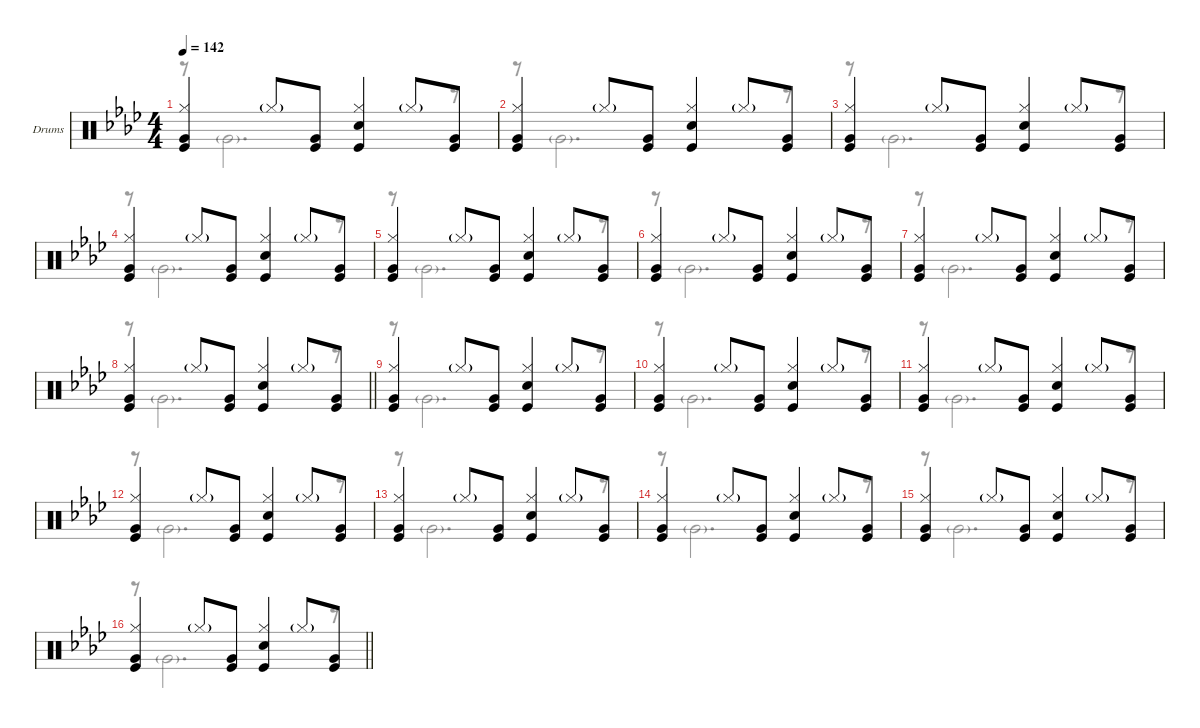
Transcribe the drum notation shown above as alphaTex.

\defaultSystemsLayout 4
\hideDynamics
\bracketExtendMode groupsimilarinstruments
\firstSystemTrackNameOrientation horizontal
\otherSystemsTrackNameOrientation horizontal
\track ("Drumkit" "Drums") {multiBarRest instrument percussion}
\staff {score}
\articulation defaults
\voice
\ts (4 4)
\tempo 142
\clef neutral
\ks ab
("Very Low Tom (hit)" "Kick (hit)" "Hi-Hat (closed)").4{dy fff} "Hi-Hat (closed)"{g}.8 ("Very Low Tom (hit)" "Kick (hit)").8 ("Snare (hit) 2" "Kick (hit)" "Hi-Hat (closed)").4 "Hi-Hat (closed)"{g}.8 ("Very Low Tom (hit)" "Kick (hit)").8 |
("Very Low Tom (hit)" "Kick (hit)" "Hi-Hat (closed)").4 "Hi-Hat (closed)"{g}.8 ("Very Low Tom (hit)" "Kick (hit)").8 ("Snare (hit) 2" "Kick (hit)" "Hi-Hat (closed)").4 "Hi-Hat (closed)"{g}.8 ("Very Low Tom (hit)" "Kick (hit)").8 |
("Very Low Tom (hit)" "Kick (hit)" "Hi-Hat (closed)").4 "Hi-Hat (closed)"{g}.8 ("Very Low Tom (hit)" "Kick (hit)").8 ("Snare (hit) 2" "Kick (hit)" "Hi-Hat (closed)").4 "Hi-Hat (closed)"{g}.8 ("Very Low Tom (hit)" "Kick (hit)").8 |
("Very Low Tom (hit)" "Kick (hit)" "Hi-Hat (closed)").4 "Hi-Hat (closed)"{g}.8 ("Very Low Tom (hit)" "Kick (hit)").8 ("Snare (hit) 2" "Kick (hit)" "Hi-Hat (closed)").4 "Hi-Hat (closed)"{g}.8 ("Very Low Tom (hit)" "Kick (hit)").8 |
("Very Low Tom (hit)" "Kick (hit)" "Hi-Hat (closed)").4 "Hi-Hat (closed)"{g}.8 ("Very Low Tom (hit)" "Kick (hit)").8 ("Snare (hit) 2" "Kick (hit)" "Hi-Hat (closed)").4 "Hi-Hat (closed)"{g}.8 ("Very Low Tom (hit)" "Kick (hit)").8 |
("Very Low Tom (hit)" "Kick (hit)" "Hi-Hat (closed)").4 "Hi-Hat (closed)"{g}.8 ("Very Low Tom (hit)" "Kick (hit)").8 ("Snare (hit) 2" "Kick (hit)" "Hi-Hat (closed)").4 "Hi-Hat (closed)"{g}.8 ("Very Low Tom (hit)" "Kick (hit)").8 |
("Very Low Tom (hit)" "Kick (hit)" "Hi-Hat (closed)").4 "Hi-Hat (closed)"{g}.8 ("Very Low Tom (hit)" "Kick (hit)").8 ("Snare (hit) 2" "Kick (hit)" "Hi-Hat (closed)").4 "Hi-Hat (closed)"{g}.8 ("Very Low Tom (hit)" "Kick (hit)").8 |
\barLineRight lightlight
("Very Low Tom (hit)" "Kick (hit)" "Hi-Hat (closed)").4 "Hi-Hat (closed)"{g}.8 ("Very Low Tom (hit)" "Kick (hit)").8 ("Snare (hit) 2" "Kick (hit)" "Hi-Hat (closed)").4 "Hi-Hat (closed)"{g}.8 ("Very Low Tom (hit)" "Kick (hit)").8 |
("Very Low Tom (hit)" "Kick (hit)" "Hi-Hat (closed)").4 "Hi-Hat (closed)"{g}.8 ("Very Low Tom (hit)" "Kick (hit)").8 ("Snare (hit) 2" "Kick (hit)" "Hi-Hat (closed)").4 "Hi-Hat (closed)"{g}.8 ("Very Low Tom (hit)" "Kick (hit)").8 |
("Very Low Tom (hit)" "Kick (hit)" "Hi-Hat (closed)").4 "Hi-Hat (closed)"{g}.8 ("Very Low Tom (hit)" "Kick (hit)").8 ("Snare (hit) 2" "Kick (hit)" "Hi-Hat (closed)").4 "Hi-Hat (closed)"{g}.8 ("Very Low Tom (hit)" "Kick (hit)").8 |
("Very Low Tom (hit)" "Kick (hit)" "Hi-Hat (closed)").4 "Hi-Hat (closed)"{g}.8 ("Very Low Tom (hit)" "Kick (hit)").8 ("Snare (hit) 2" "Kick (hit)" "Hi-Hat (closed)").4 "Hi-Hat (closed)"{g}.8 ("Very Low Tom (hit)" "Kick (hit)").8 |
("Very Low Tom (hit)" "Kick (hit)" "Hi-Hat (closed)").4 "Hi-Hat (closed)"{g}.8 ("Very Low Tom (hit)" "Kick (hit)").8 ("Snare (hit) 2" "Kick (hit)" "Hi-Hat (closed)").4 "Hi-Hat (closed)"{g}.8 ("Very Low Tom (hit)" "Kick (hit)").8 |
("Very Low Tom (hit)" "Kick (hit)" "Hi-Hat (closed)").4 "Hi-Hat (closed)"{g}.8 ("Very Low Tom (hit)" "Kick (hit)").8 ("Snare (hit) 2" "Kick (hit)" "Hi-Hat (closed)").4 "Hi-Hat (closed)"{g}.8 ("Very Low Tom (hit)" "Kick (hit)").8 |
("Very Low Tom (hit)" "Kick (hit)" "Hi-Hat (closed)").4 "Hi-Hat (closed)"{g}.8 ("Very Low Tom (hit)" "Kick (hit)").8 ("Snare (hit) 2" "Kick (hit)" "Hi-Hat (closed)").4 "Hi-Hat (closed)"{g}.8 ("Very Low Tom (hit)" "Kick (hit)").8 |
("Very Low Tom (hit)" "Kick (hit)" "Hi-Hat (closed)").4 "Hi-Hat (closed)"{g}.8 ("Very Low Tom (hit)" "Kick (hit)").8 ("Snare (hit) 2" "Kick (hit)" "Hi-Hat (closed)").4 "Hi-Hat (closed)"{g}.8 ("Very Low Tom (hit)" "Kick (hit)").8 |
\barLineRight lightlight
("Very Low Tom (hit)" "Kick (hit)" "Hi-Hat (closed)").4 "Hi-Hat (closed)"{g}.8 ("Very Low Tom (hit)" "Kick (hit)").8 ("Snare (hit) 2" "Kick (hit)" "Hi-Hat (closed)").4 "Hi-Hat (closed)"{g}.8 ("Very Low Tom (hit)" "Kick (hit)").8
\voice
\clef neutral
\ottava regular
\simile none
\ks ab
r.8{dy mf} "Very Low Tom (hit)"{g}.2{d} r.8 |
r.8 "Very Low Tom (hit)"{g}.2{d} r.8 |
r.8 "Very Low Tom (hit)"{g}.2{d} r.8 |
r.8 "Very Low Tom (hit)"{g}.2{d} r.8 |
r.8 "Very Low Tom (hit)"{g}.2{d} r.8 |
r.8 "Very Low Tom (hit)"{g}.2{d} r.8 |
r.8 "Very Low Tom (hit)"{g}.2{d} r.8 |
\barLineRight lightlight
r.8 "Very Low Tom (hit)"{g}.2{d} r.8 |
r.8 "Very Low Tom (hit)"{g}.2{d} r.8 |
r.8 "Very Low Tom (hit)"{g}.2{d} r.8 |
r.8 "Very Low Tom (hit)"{g}.2{d} r.8 |
r.8 "Very Low Tom (hit)"{g}.2{d} r.8 |
r.8 "Very Low Tom (hit)"{g}.2{d} r.8 |
r.8 "Very Low Tom (hit)"{g}.2{d} r.8 |
r.8 "Very Low Tom (hit)"{g}.2{d} r.8 |
\barLineRight lightlight
r.8 "Very Low Tom (hit)"{g}.2{d} r.8
